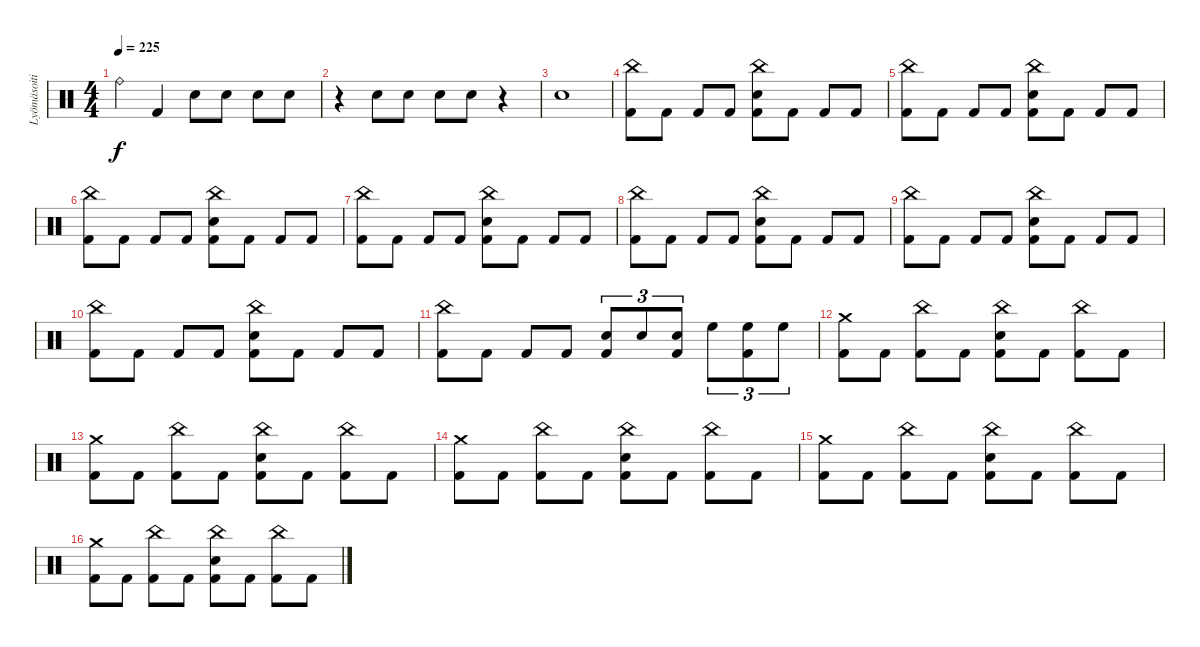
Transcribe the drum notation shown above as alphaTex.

\track ("Lyömäsoitin" "Lyömäsoiti") {instrument percussion}
\staff {score}
\articulation defaults
\ts (4 4)
\tempo 225
\clef neutral
\ks c "Ride (bell)".4{dy f} "Kick (hit) 2".4 "Snare (hit) 2".8 "Snare (hit) 2".8 "Snare (hit) 2".8 "Snare (hit) 2".8
|
r.4 "Snare (hit) 2".8 "Snare (hit) 2".8 "Snare (hit) 2".8 "Snare (hit) 2".8 r.4 |
"Snare (hit) 2".1 |
("China (hit)" "Kick (hit) 2").8 "Kick (hit) 2".8 "Kick (hit) 2".8 "Kick (hit) 2".8 ("China (hit)" "Snare (hit) 2" "Kick (hit) 2").8 "Kick (hit) 2".8 "Kick (hit) 2".8 "Kick (hit) 2".8 |
("China (hit)" "Kick (hit) 2").8 "Kick (hit) 2".8 "Kick (hit) 2".8 "Kick (hit) 2".8 ("China (hit)" "Snare (hit) 2" "Kick (hit) 2").8 "Kick (hit) 2".8 "Kick (hit) 2".8 "Kick (hit) 2".8 |
("China (hit)" "Kick (hit) 2").8 "Kick (hit) 2".8 "Kick (hit) 2".8 "Kick (hit) 2".8 ("China (hit)" "Snare (hit) 2" "Kick (hit) 2").8 "Kick (hit) 2".8 "Kick (hit) 2".8 "Kick (hit) 2".8 |
("China (hit)" "Kick (hit) 2").8 "Kick (hit) 2".8 "Kick (hit) 2".8 "Kick (hit) 2".8 ("China (hit)" "Snare (hit) 2" "Kick (hit) 2").8 "Kick (hit) 2".8 "Kick (hit) 2".8 "Kick (hit) 2".8 |
("China (hit)" "Kick (hit) 2").8 "Kick (hit) 2".8 "Kick (hit) 2".8 "Kick (hit) 2".8 ("China (hit)" "Snare (hit) 2" "Kick (hit) 2").8 "Kick (hit) 2".8 "Kick (hit) 2".8 "Kick (hit) 2".8 |
("China (hit)" "Kick (hit) 2").8 "Kick (hit) 2".8 "Kick (hit) 2".8 "Kick (hit) 2".8 ("China (hit)" "Snare (hit) 2" "Kick (hit) 2").8 "Kick (hit) 2".8 "Kick (hit) 2".8 "Kick (hit) 2".8 |
("China (hit)" "Kick (hit) 2").8 "Kick (hit) 2".8 "Kick (hit) 2".8 "Kick (hit) 2".8 ("China (hit)" "Snare (hit) 2" "Kick (hit) 2").8 "Kick (hit) 2".8 "Kick (hit) 2".8 "Kick (hit) 2".8 |
("China (hit)" "Kick (hit) 2").8 "Kick (hit) 2".8 "Kick (hit) 2".8 "Kick (hit) 2".8 ("Snare (hit) 2" "Kick (hit) 2").8{tu (3 2)} "Snare (hit) 2".8{tu (3 2)} ("Snare (hit) 2" "Kick (hit) 2").8{tu (3 2)} "High Floor Tom (hit)".8{tu (3 2)} ("High Floor Tom (hit)" "Kick (hit) 2").8{tu (3 2)} "High Floor Tom (hit)".8{tu (3 2)} |
("Crash medium (hit)" "Kick (hit) 2").8 "Kick (hit) 2".8 ("China (hit)" "Kick (hit) 2").8 "Kick (hit) 2".8 ("China (hit)" "Snare (hit) 2" "Kick (hit) 2").8 "Kick (hit) 2".8 ("China (hit)" "Kick (hit) 2").8 "Kick (hit) 2".8 |
("Crash medium (hit)" "Kick (hit) 2").8 "Kick (hit) 2".8 ("China (hit)" "Kick (hit) 2").8 "Kick (hit) 2".8 ("China (hit)" "Snare (hit) 2" "Kick (hit) 2").8 "Kick (hit) 2".8 ("China (hit)" "Kick (hit) 2").8 "Kick (hit) 2".8 |
("Crash medium (hit)" "Kick (hit) 2").8 "Kick (hit) 2".8 ("China (hit)" "Kick (hit) 2").8 "Kick (hit) 2".8 ("China (hit)" "Snare (hit) 2" "Kick (hit) 2").8 "Kick (hit) 2".8 ("China (hit)" "Kick (hit) 2").8 "Kick (hit) 2".8 |
("Crash medium (hit)" "Kick (hit) 2").8 "Kick (hit) 2".8 ("China (hit)" "Kick (hit) 2").8 "Kick (hit) 2".8 ("China (hit)" "Snare (hit) 2" "Kick (hit) 2").8 "Kick (hit) 2".8 ("China (hit)" "Kick (hit) 2").8 "Kick (hit) 2".8 |
("Crash medium (hit)" "Kick (hit) 2").8 "Kick (hit) 2".8 ("China (hit)" "Kick (hit) 2").8 "Kick (hit) 2".8 ("China (hit)" "Snare (hit) 2" "Kick (hit) 2").8 "Kick (hit) 2".8 ("China (hit)" "Kick (hit) 2").8 "Kick (hit) 2".8
